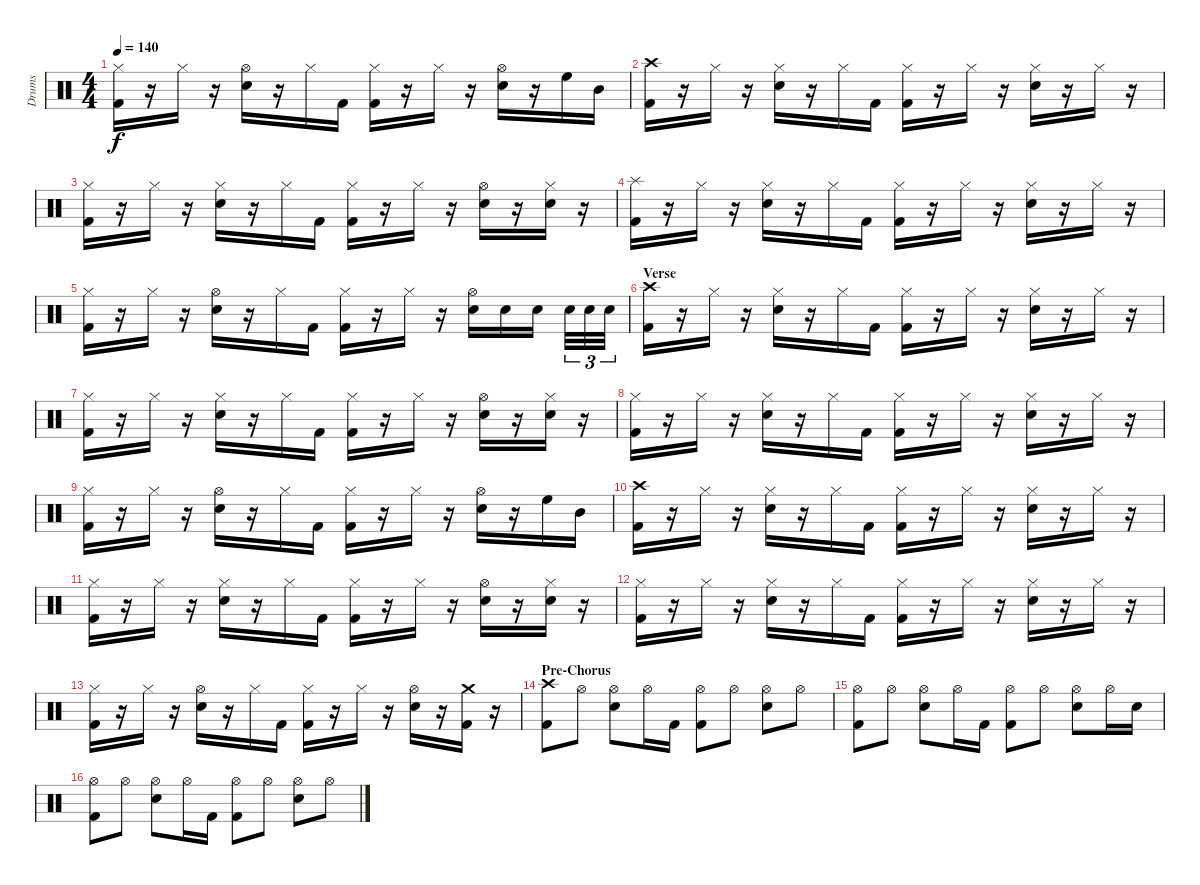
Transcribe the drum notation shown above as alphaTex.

\track ("Drums" "Drums") {instrument percussion}
\staff {score}
\articulation defaults
\ts (4 4)
\tempo 140
\clef neutral
\ks c
("Hi-Hat (closed)" "Kick (hit) 2").16{dy f} r.16 "Hi-Hat (closed)".16 r.16 ("Hi-Hat (open)" "Electric Snare (hit)").16 r.16 "Hi-Hat (closed)".16 "Kick (hit) 2".16 ("Hi-Hat (closed)" "Kick (hit) 2").16 r.16 "Hi-Hat (closed)".16 r.16 ("Hi-Hat (open)" "Electric Snare (hit)").16 r.16 "High Floor Tom (hit)".16 "Mid Tom (hit)".16 |
("Crash high (hit)" "Kick (hit) 2").16 r.16 "Hi-Hat (closed)".16 r.16 ("Hi-Hat (closed)" "Electric Snare (hit)").16 r.16 "Hi-Hat (closed)".16 "Kick (hit) 2".16 ("Hi-Hat (closed)" "Kick (hit) 2").16 r.16 "Hi-Hat (closed)".16 r.16 ("Hi-Hat (closed)" "Electric Snare (hit)").16 r.16 "Hi-Hat (closed)".16 r.16 |
("Hi-Hat (closed)" "Kick (hit) 2").16 r.16 "Hi-Hat (closed)".16 r.16 ("Hi-Hat (closed)" "Electric Snare (hit)").16 r.16 "Hi-Hat (closed)".16 "Kick (hit) 2".16 ("Hi-Hat (closed)" "Kick (hit) 2").16 r.16 "Hi-Hat (closed)".16 r.16 ("Hi-Hat (open)" "Electric Snare (hit)").16 r.16 ("Hi-Hat (closed)" "Electric Snare (hit)").16 r.16 |
("Splash (hit)" "Kick (hit) 2").16 r.16 "Hi-Hat (closed)".16 r.16 ("Hi-Hat (closed)" "Electric Snare (hit)").16 r.16 "Hi-Hat (closed)".16 "Kick (hit) 2".16 ("Hi-Hat (closed)" "Kick (hit) 2").16 r.16 "Hi-Hat (closed)".16 r.16 ("Hi-Hat (closed)" "Electric Snare (hit)").16 r.16 "Hi-Hat (closed)".16 r.16 |
("Hi-Hat (closed)" "Kick (hit) 2").16 r.16 "Hi-Hat (closed)".16 r.16 ("Hi-Hat (open)" "Electric Snare (hit)").16 r.16 "Hi-Hat (closed)".16 "Kick (hit) 2".16 ("Hi-Hat (closed)" "Kick (hit) 2").16 r.16 "Hi-Hat (closed)".16 r.16 ("Hi-Hat (open)" "Electric Snare (hit)").16 "Electric Snare (hit)".16 "Electric Snare (hit)".16 "Electric Snare (hit)".32{tu (3 2)} "Electric Snare (hit)".32{tu (3 2)} "Electric Snare (hit)".32{tu (3 2)} |
\section ("" "Verse")
("Crash high (hit)" "Kick (hit) 2").16 r.16 "Hi-Hat (closed)".16 r.16 ("Hi-Hat (closed)" "Electric Snare (hit)").16 r.16 "Hi-Hat (closed)".16 "Kick (hit) 2".16 ("Hi-Hat (closed)" "Kick (hit) 2").16 r.16 "Hi-Hat (closed)".16 r.16 ("Hi-Hat (closed)" "Electric Snare (hit)").16 r.16 "Hi-Hat (closed)".16 r.16 |
("Hi-Hat (closed)" "Kick (hit) 2").16 r.16 "Hi-Hat (closed)".16 r.16 ("Hi-Hat (closed)" "Electric Snare (hit)").16 r.16 "Hi-Hat (closed)".16 "Kick (hit) 2".16 ("Hi-Hat (closed)" "Kick (hit) 2").16 r.16 "Hi-Hat (closed)".16 r.16 ("Hi-Hat (open)" "Electric Snare (hit)").16 r.16 ("Hi-Hat (closed)" "Electric Snare (hit)").16 r.16 |
("Hi-Hat (closed)" "Kick (hit) 2").16 r.16 "Hi-Hat (closed)".16 r.16 ("Hi-Hat (closed)" "Electric Snare (hit)").16 r.16 "Hi-Hat (closed)".16 "Kick (hit) 2".16 ("Hi-Hat (closed)" "Kick (hit) 2").16 r.16 "Hi-Hat (closed)".16 r.16 ("Hi-Hat (closed)" "Electric Snare (hit)").16 r.16 "Hi-Hat (closed)".16 r.16 |
("Hi-Hat (closed)" "Kick (hit) 2").16 r.16 "Hi-Hat (closed)".16 r.16 ("Hi-Hat (open)" "Electric Snare (hit)").16 r.16 "Hi-Hat (closed)".16 "Kick (hit) 2".16 ("Hi-Hat (closed)" "Kick (hit) 2").16 r.16 "Hi-Hat (closed)".16 r.16 ("Hi-Hat (open)" "Electric Snare (hit)").16 r.16 "High Floor Tom (hit)".16 "Mid Tom (hit)".16 |
("Crash high (hit)" "Kick (hit) 2").16 r.16 "Hi-Hat (closed)".16 r.16 ("Hi-Hat (closed)" "Electric Snare (hit)").16 r.16 "Hi-Hat (closed)".16 "Kick (hit) 2".16 ("Hi-Hat (closed)" "Kick (hit) 2").16 r.16 "Hi-Hat (closed)".16 r.16 ("Hi-Hat (closed)" "Electric Snare (hit)").16 r.16 "Hi-Hat (closed)".16 r.16 |
("Hi-Hat (closed)" "Kick (hit) 2").16 r.16 "Hi-Hat (closed)".16 r.16 ("Hi-Hat (closed)" "Electric Snare (hit)").16 r.16 "Hi-Hat (closed)".16 "Kick (hit) 2".16 ("Hi-Hat (closed)" "Kick (hit) 2").16 r.16 "Hi-Hat (closed)".16 r.16 ("Hi-Hat (open)" "Electric Snare (hit)").16 r.16 ("Hi-Hat (closed)" "Electric Snare (hit)").16 r.16 |
("Hi-Hat (closed)" "Kick (hit) 2").16 r.16 "Hi-Hat (closed)".16 r.16 ("Hi-Hat (closed)" "Electric Snare (hit)").16 r.16 "Hi-Hat (closed)".16 "Kick (hit) 2".16 ("Hi-Hat (closed)" "Kick (hit) 2").16 r.16 "Hi-Hat (closed)".16 r.16 ("Hi-Hat (closed)" "Electric Snare (hit)").16 r.16 "Hi-Hat (closed)".16 r.16 |
("Hi-Hat (closed)" "Kick (hit) 2").16 r.16 "Hi-Hat (closed)".16 r.16 ("Hi-Hat (open)" "Electric Snare (hit)").16 r.16 "Hi-Hat (closed)".16 "Kick (hit) 2".16 ("Hi-Hat (closed)" "Kick (hit) 2").16 r.16 "Hi-Hat (closed)".16 r.16 ("Hi-Hat (open)" "Electric Snare (hit)").16 r.16 ("Crash medium (hit)" "Kick (hit) 2").16 r.16 |
\section ("" "Pre-Chorus")
("Crash high (hit)" "Kick (hit) 2").8 "Hi-Hat (open)".8 ("Hi-Hat (open)" "Electric Snare (hit)").8 "Hi-Hat (open)".16 "Kick (hit) 2".16 ("Hi-Hat (open)" "Kick (hit) 2").8 "Hi-Hat (open)".8 ("Hi-Hat (open)" "Electric Snare (hit)").8 "Hi-Hat (open)".8 |
("Hi-Hat (open)" "Kick (hit) 2").8 "Hi-Hat (open)".8 ("Hi-Hat (open)" "Electric Snare (hit)").8 "Hi-Hat (open)".16 "Kick (hit) 2".16 ("Hi-Hat (open)" "Kick (hit) 2").8 "Hi-Hat (open)".8 ("Hi-Hat (open)" "Electric Snare (hit)").8 "Hi-Hat (open)".16 "Electric Snare (hit)".16 |
("Hi-Hat (open)" "Kick (hit) 2").8 "Hi-Hat (open)".8 ("Hi-Hat (open)" "Electric Snare (hit)").8 "Hi-Hat (open)".16 "Kick (hit) 2".16 ("Hi-Hat (open)" "Kick (hit) 2").8 "Hi-Hat (open)".8 ("Hi-Hat (open)" "Electric Snare (hit)").8 "Hi-Hat (open)".8
